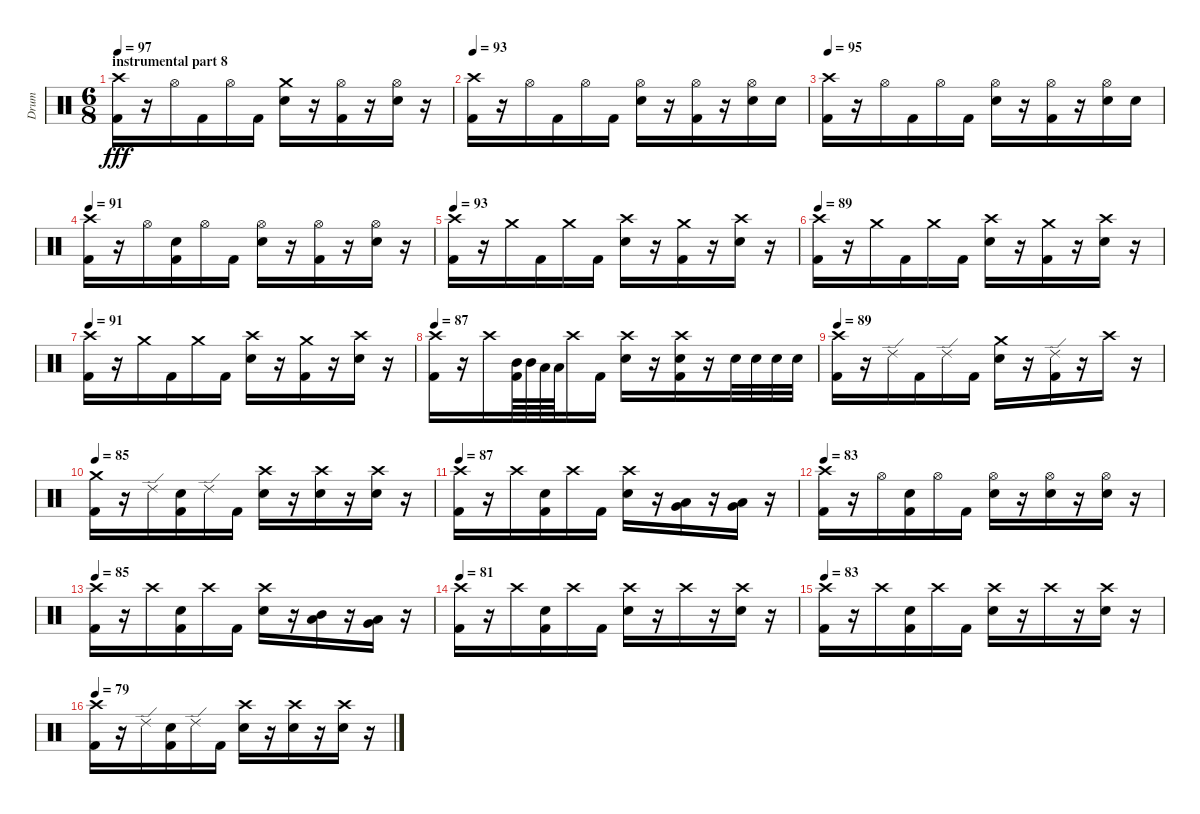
\track ("Drum" "Drum") {instrument percussion}
\staff {score}
\articulation defaults
\ts (6 8)
\section ("" "instrumental part 8")
\tempo 95
\tempo 97
\clef neutral
\ks c
("Crash high (hit)" "Kick (hit) 2").16{dy fff} r.16 "Hi-Hat (open)".16 "Kick (hit) 2".16 "Hi-Hat (open)".16 "Kick (hit) 2".16 ("Crash medium (hit)" "Electric Snare (hit)").16 r.16 ("Hi-Hat (open)" "Kick (hit) 2").16 r.16 ("Hi-Hat (open)" "Electric Snare (hit)").16 r.16 |
\tempo 93
("Crash high (hit)" "Kick (hit) 2").16 r.16 "Hi-Hat (open)".16 "Kick (hit) 2".16 "Hi-Hat (open)".16 "Kick (hit) 2".16 ("Hi-Hat (open)" "Electric Snare (hit)").16 r.16 ("Hi-Hat (open)" "Kick (hit) 2").16 r.16 ("Hi-Hat (open)" "Electric Snare (hit)").16 "Electric Snare (hit)".16 |
\tempo 95
("Crash high (hit)" "Kick (hit) 2").16 r.16 "Hi-Hat (open)".16 "Kick (hit) 2".16 "Hi-Hat (open)".16 "Kick (hit) 2".16 ("Hi-Hat (open)" "Electric Snare (hit)").16 r.16 ("Hi-Hat (open)" "Kick (hit) 2").16 r.16 ("Hi-Hat (open)" "Electric Snare (hit)").16 "Electric Snare (hit)".16 |
\tempo 91
("Crash high (hit)" "Kick (hit) 2").16 r.16 "Hi-Hat (open)".16 ("Electric Snare (hit)" "Kick (hit) 2").16 "Hi-Hat (open)".16 "Kick (hit) 2".16 ("Hi-Hat (open)" "Electric Snare (hit)").16 r.16 ("Hi-Hat (open)" "Kick (hit) 2").16 r.16 ("Hi-Hat (open)" "Electric Snare (hit)").16 r.16 |
\tempo 93
("Crash high (hit)" "Kick (hit) 2").16 r.16 "Crash medium (hit)".16 "Kick (hit) 2".16 "Crash medium (hit)".16 "Kick (hit) 2".16 ("Crash high (hit)" "Electric Snare (hit)").16 r.16 ("Crash medium (hit)" "Kick (hit) 2").16 r.16 ("Crash high (hit)" "Electric Snare (hit)").16 r.16 |
\tempo 89
("Crash high (hit)" "Kick (hit) 2").16 r.16 "Crash medium (hit)".16 "Kick (hit) 2".16 "Crash medium (hit)".16 "Kick (hit) 2".16 ("Crash high (hit)" "Electric Snare (hit)").16 r.16 ("Crash medium (hit)" "Kick (hit) 2").16 r.16 ("Crash high (hit)" "Electric Snare (hit)").16 r.16 |
\tempo 91
("Crash high (hit)" "Kick (hit) 2").16 r.16 "Crash medium (hit)".16 "Kick (hit) 2".16 "Crash medium (hit)".16 "Kick (hit) 2".16 ("Crash high (hit)" "Electric Snare (hit)").16 r.16 ("Crash medium (hit)" "Kick (hit) 2").16 r.16 ("Crash high (hit)" "Electric Snare (hit)").16 r.16 |
\tempo 87
("Crash high (hit)" "Kick (hit) 2").16 r.16 "Crash high (hit)".16 ("Mid Tom (hit)" "Kick (hit) 2").64 "Mid Tom (hit)".64 "Low Tom (hit)".64 "Low Tom (hit)".64 "Crash high (hit)".16 "Kick (hit) 2".16 ("Crash high (hit)" "Electric Snare (hit)").16 r.16 ("Crash high (hit)" "Electric Snare (hit)" "Kick (hit) 2").16 r.16 "Electric Snare (hit)".32 "Electric Snare (hit)".32 "Electric Snare (hit)".32 "Electric Snare (hit)".32 |
\tempo 89
("Crash high (hit)" "Kick (hit) 2").16 r.16 "Ride (edge) 2".16 "Kick (hit) 2".16 "Ride (edge) 2".16 "Kick (hit) 2".16 ("Crash medium (hit)" "Electric Snare (hit)").16 r.16 ("Ride (edge) 2" "Kick (hit) 2").16 r.16 "Crash high (hit)".16 r.16 |
\tempo 85
("Crash medium (hit)" "Kick (hit) 2").16 r.16 "Ride (edge) 2".16 ("Electric Snare (hit)" "Kick (hit) 2").16 "Ride (edge) 2".16 "Kick (hit) 2".16 ("Crash high (hit)" "Electric Snare (hit)").16 r.16 ("Crash high (hit)" "Electric Snare (hit)").16 r.16 ("Crash high (hit)" "Electric Snare (hit)").16 r.16 |
\tempo 87
("Crash high (hit)" "Kick (hit) 2").16 r.16 "Crash high (hit)".16 ("Electric Snare (hit)" "Kick (hit) 2").16 "Crash high (hit)".16 "Kick (hit) 2".16 ("Crash high (hit)" "Electric Snare (hit)").16 r.16 ("Low Tom (hit)" "Very Low Tom (hit)").16 r.16 ("Low Tom (hit)" "Very Low Tom (hit)").16 r.16 |
\tempo 83
("Crash high (hit)" "Kick (hit) 2").16 r.16 "Hi-Hat (open)".16 ("Electric Snare (hit)" "Kick (hit) 2").16 "Hi-Hat (open)".16 "Kick (hit) 2".16 ("Hi-Hat (open)" "Electric Snare (hit)").16 r.16 ("Hi-Hat (open)" "Electric Snare (hit)").16 r.16 ("Hi-Hat (open)" "Electric Snare (hit)").16 r.16 |
\tempo 85
("Crash high (hit)" "Kick (hit) 2").16 r.16 "Crash high (hit)".16 ("Electric Snare (hit)" "Kick (hit) 2").16 "Crash high (hit)".16 "Kick (hit) 2".16 ("Crash high (hit)" "Electric Snare (hit)").16 r.16 ("Mid Tom (hit)" "Low Tom (hit)").16 r.16 ("Very Low Tom (hit)" "Low Tom (hit)").16 r.16 |
\tempo 81
("Crash high (hit)" "Kick (hit) 2").16 r.16 "Crash high (hit)".16 ("Electric Snare (hit)" "Kick (hit) 2").16 "Crash high (hit)".16 "Kick (hit) 2".16 ("Crash high (hit)" "Electric Snare (hit)").16 r.16 "Crash high (hit)".16 r.16 ("Crash high (hit)" "Electric Snare (hit)").16 r.16 |
\tempo 83
("Crash high (hit)" "Kick (hit) 2").16 r.16 "Crash high (hit)".16 ("Electric Snare (hit)" "Kick (hit) 2").16 "Crash high (hit)".16 "Kick (hit) 2".16 ("Crash high (hit)" "Electric Snare (hit)").16 r.16 "Crash high (hit)".16 r.16 ("Crash high (hit)" "Electric Snare (hit)").16 r.16 |
\tempo 79
("Crash high (hit)" "Kick (hit) 2").16 r.16 "Ride (edge) 2".16 ("Electric Snare (hit)" "Kick (hit) 2").16 "Ride (edge) 2".16 "Kick (hit) 2".16 ("Crash high (hit)" "Electric Snare (hit)").16 r.16 ("Crash high (hit)" "Electric Snare (hit)").16 r.16 ("Crash high (hit)" "Electric Snare (hit)").16 r.16
